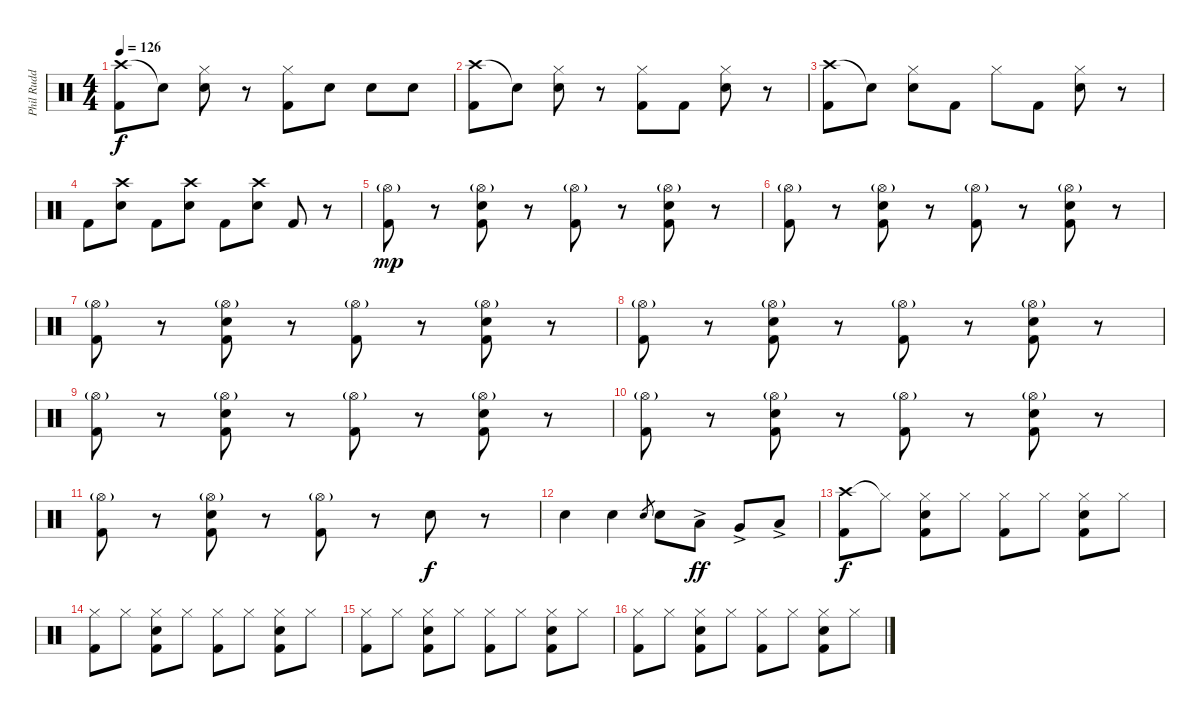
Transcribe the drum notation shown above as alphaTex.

\track ("Phil Rudd" "Phil Rudd") {instrument percussion}
\staff {score}
\articulation defaults
\ts (4 4)
\tempo 126
\clef neutral
\ks c
("Crash high (hit)" "Kick (hit) 2").8{dy f} "Snare (hit)"{t}.8 ("Hi-Hat (closed)" "Snare (hit) 2").8 r.8 ("Hi-Hat (closed)" "Kick (hit) 2").8 "Snare (hit) 2".8 "Snare (hit) 2".8 "Snare (hit) 2".8 |
("Crash high (hit)" "Kick (hit) 2").8 "Snare (hit)"{t}.8 ("Hi-Hat (closed)" "Snare (hit) 2").8 r.8 ("Hi-Hat (closed)" "Kick (hit) 2").8 "Kick (hit) 2".8 ("Hi-Hat (closed)" "Snare (hit) 2").8 r.8 |
("Crash high (hit)" "Kick (hit) 2").8 "Snare (hit)"{t}.8 ("Hi-Hat (closed)" "Snare (hit) 2").8 "Kick (hit) 2".8 "Hi-Hat (closed)".8 "Kick (hit) 2".8 ("Hi-Hat (closed)" "Snare (hit) 2").8 r.8 |
"Kick (hit) 2".8 ("Crash high (hit)" "Snare (hit) 2").8 "Kick (hit) 2".8 ("Crash high (hit)" "Snare (hit) 2").8 "Kick (hit) 2".8 ("Crash high (hit)" "Snare (hit) 2").8 "Kick (hit) 2".8 r.8 |
("Hi-Hat (open)"{g} "Kick (hit) 2").8{dy mp} r.8 ("Hi-Hat (open)"{g} "Snare (hit) 2" "Kick (hit) 2").8 r.8 ("Hi-Hat (open)"{g} "Kick (hit) 2").8 r.8 ("Hi-Hat (open)"{g} "Snare (hit) 2" "Kick (hit) 2").8 r.8 |
("Hi-Hat (open)"{g} "Kick (hit) 2").8 r.8 ("Hi-Hat (open)"{g} "Snare (hit) 2" "Kick (hit) 2").8 r.8 ("Hi-Hat (open)"{g} "Kick (hit) 2").8 r.8 ("Hi-Hat (open)"{g} "Snare (hit) 2" "Kick (hit) 2").8 r.8 |
("Hi-Hat (open)"{g} "Kick (hit) 2").8 r.8 ("Hi-Hat (open)"{g} "Snare (hit) 2" "Kick (hit) 2").8 r.8 ("Hi-Hat (open)"{g} "Kick (hit) 2").8 r.8 ("Hi-Hat (open)"{g} "Snare (hit) 2" "Kick (hit) 2").8 r.8 |
("Hi-Hat (open)"{g} "Kick (hit) 2").8 r.8 ("Hi-Hat (open)"{g} "Snare (hit) 2" "Kick (hit) 2").8 r.8 ("Hi-Hat (open)"{g} "Kick (hit) 2").8 r.8 ("Hi-Hat (open)"{g} "Snare (hit) 2" "Kick (hit) 2").8 r.8 |
("Hi-Hat (open)"{g} "Kick (hit) 2").8 r.8 ("Hi-Hat (open)"{g} "Snare (hit) 2" "Kick (hit) 2").8 r.8 ("Hi-Hat (open)"{g} "Kick (hit) 2").8 r.8 ("Hi-Hat (open)"{g} "Snare (hit) 2" "Kick (hit) 2").8 r.8 |
("Hi-Hat (open)"{g} "Kick (hit) 2").8 r.8 ("Hi-Hat (open)"{g} "Snare (hit) 2" "Kick (hit) 2").8 r.8 ("Hi-Hat (open)"{g} "Kick (hit) 2").8 r.8 ("Hi-Hat (open)"{g} "Snare (hit) 2" "Kick (hit) 2").8 r.8 |
("Hi-Hat (open)"{g} "Kick (hit) 2").8 r.8 ("Hi-Hat (open)"{g} "Snare (hit) 2" "Kick (hit) 2").8 r.8 ("Hi-Hat (open)"{g} "Kick (hit) 2").8 r.8 "Snare (hit) 2".8{dy f} r.8 |
"Snare (hit) 2".4 "Snare (hit) 2".4 "Snare (hit) 2".8{gr} "Snare (hit) 2".8 "Low Tom (hit)"{ac}.8{dy ff} "Very Low Tom (hit)"{ac}.8 "Low Floor Tom (hit)"{ac}.8 |
("Crash high (hit)" "Kick (hit) 2").8{dy f} "Hi-Hat (closed)"{t}.8 ("Hi-Hat (closed)" "Snare (hit) 2" "Kick (hit) 2").8 "Hi-Hat (closed)".8 ("Hi-Hat (closed)" "Kick (hit) 2").8 "Hi-Hat (closed)".8 ("Hi-Hat (closed)" "Snare (hit) 2" "Kick (hit) 2").8 "Hi-Hat (closed)".8 |
("Hi-Hat (closed)" "Kick (hit) 2").8 "Hi-Hat (closed)".8 ("Hi-Hat (closed)" "Snare (hit) 2" "Kick (hit) 2").8 "Hi-Hat (closed)".8 ("Hi-Hat (closed)" "Kick (hit) 2").8 "Hi-Hat (closed)".8 ("Hi-Hat (closed)" "Snare (hit) 2" "Kick (hit) 2").8 "Hi-Hat (closed)".8 |
("Hi-Hat (closed)" "Kick (hit) 2").8 "Hi-Hat (closed)".8 ("Hi-Hat (closed)" "Snare (hit) 2" "Kick (hit) 2").8 "Hi-Hat (closed)".8 ("Hi-Hat (closed)" "Kick (hit) 2").8 "Hi-Hat (closed)".8 ("Hi-Hat (closed)" "Snare (hit) 2" "Kick (hit) 2").8 "Hi-Hat (closed)".8 |
("Hi-Hat (closed)" "Kick (hit) 2").8 "Hi-Hat (closed)".8 ("Hi-Hat (closed)" "Snare (hit) 2" "Kick (hit) 2").8 "Hi-Hat (closed)".8 ("Hi-Hat (closed)" "Kick (hit) 2").8 "Hi-Hat (closed)".8 ("Hi-Hat (closed)" "Snare (hit) 2" "Kick (hit) 2").8 "Hi-Hat (closed)".8
